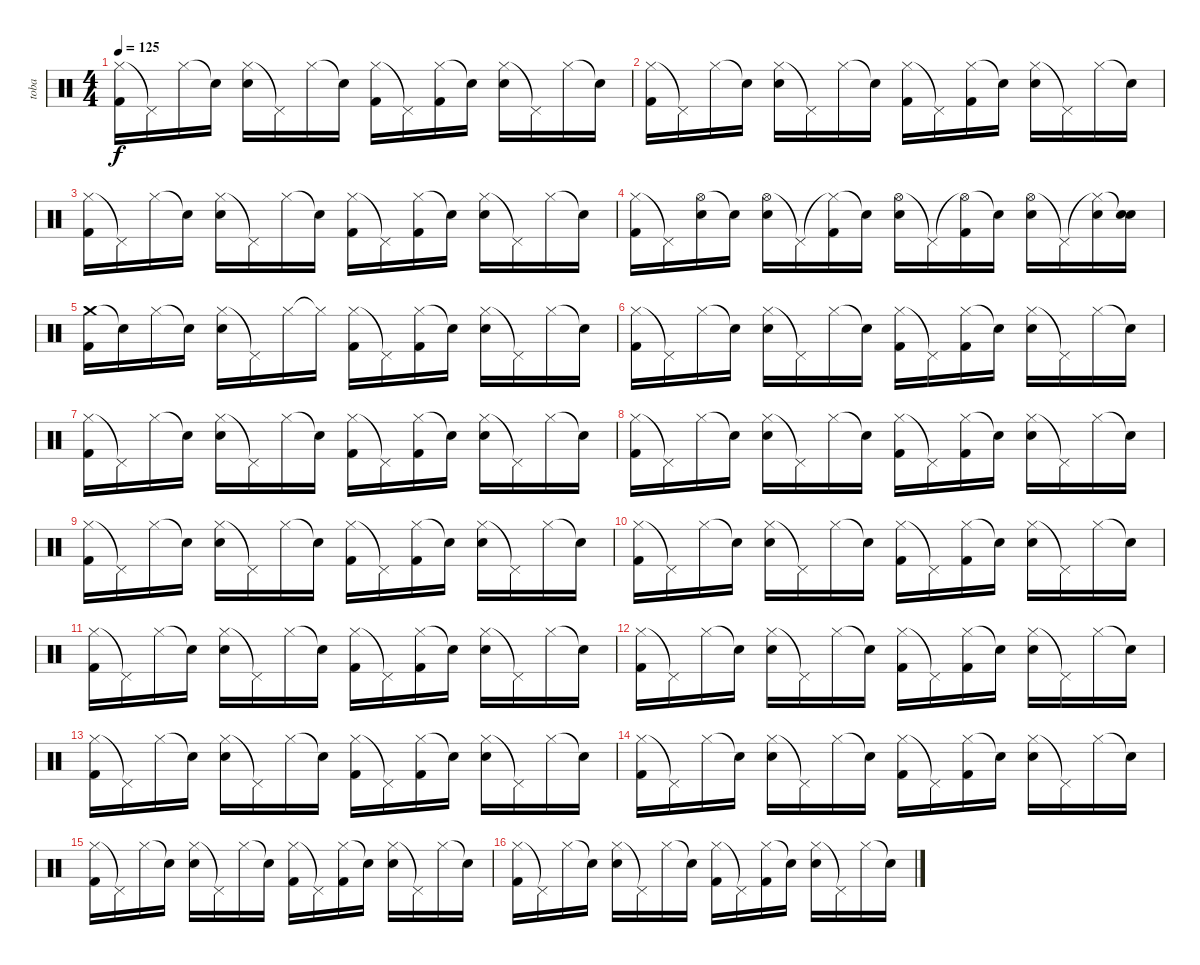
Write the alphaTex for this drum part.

\track ("toba" "toba") {instrument percussion}
\staff {score}
\articulation defaults
\ts (4 4)
\tempo 125
\clef neutral
\ks c
("Hi-Hat (closed)" "Kick (hit) 2").16{dy f} "Pedal Hi-Hat (hit)"{t}.16 "Hi-Hat (closed)".16 "Snare (hit)"{t}.16 ("Hi-Hat (closed)" "Electric Snare (hit)").16 "Pedal Hi-Hat (hit)"{t}.16 "Hi-Hat (closed)".16 "Snare (hit)"{t}.16 ("Hi-Hat (closed)" "Kick (hit) 2").16 "Pedal Hi-Hat (hit)"{t}.16 ("Hi-Hat (closed)" "Kick (hit) 2").16 "Snare (hit)"{t}.16 ("Hi-Hat (closed)" "Electric Snare (hit)").16 "Pedal Hi-Hat (hit)"{t}.16 "Hi-Hat (closed)".16 "Snare (hit)"{t}.16 |
("Hi-Hat (closed)" "Kick (hit) 2").16 "Pedal Hi-Hat (hit)"{t}.16 "Hi-Hat (closed)".16 "Snare (hit)"{t}.16 ("Hi-Hat (closed)" "Electric Snare (hit)").16 "Pedal Hi-Hat (hit)"{t}.16 "Hi-Hat (closed)".16 "Snare (hit)"{t}.16 ("Hi-Hat (closed)" "Kick (hit) 2").16 "Pedal Hi-Hat (hit)"{t}.16 ("Hi-Hat (closed)" "Kick (hit) 2").16 "Snare (hit)"{t}.16 ("Hi-Hat (closed)" "Electric Snare (hit)").16 "Pedal Hi-Hat (hit)"{t}.16 "Hi-Hat (closed)".16 "Snare (hit)"{t}.16 |
("Hi-Hat (closed)" "Kick (hit) 2").16 "Pedal Hi-Hat (hit)"{t}.16 "Hi-Hat (closed)".16 "Snare (hit)"{t}.16 ("Hi-Hat (closed)" "Electric Snare (hit)").16 "Pedal Hi-Hat (hit)"{t}.16 "Hi-Hat (closed)".16 "Snare (hit)"{t}.16 ("Hi-Hat (closed)" "Kick (hit) 2").16 "Pedal Hi-Hat (hit)"{t}.16 ("Hi-Hat (closed)" "Kick (hit) 2").16 "Snare (hit)"{t}.16 ("Hi-Hat (closed)" "Electric Snare (hit)").16 "Pedal Hi-Hat (hit)"{t}.16 "Hi-Hat (closed)".16 "Snare (hit)"{t}.16 |
("Hi-Hat (closed)" "Kick (hit) 2").16 "Pedal Hi-Hat (hit)"{t}.16 ("Hi-Hat (open)" "Electric Snare (hit)").16 "Snare (hit)"{t}.16 ("Hi-Hat (open)" "Electric Snare (hit)").16 "Pedal Hi-Hat (hit)"{t}.16 ("Hi-Hat (closed)"{t} "Kick (hit) 2").16 "Snare (hit)"{t}.16 ("Hi-Hat (open)" "Electric Snare (hit)").16 "Pedal Hi-Hat (hit)"{t}.16 ("Hi-Hat (open)"{t} "Kick (hit) 2").16 "Snare (hit)"{t}.16 ("Hi-Hat (open)" "Electric Snare (hit)").16 "Pedal Hi-Hat (hit)"{t}.16 ("Hi-Hat (closed)"{t} "Electric Snare (hit)").16 ("Snare (hit)"{t} "Electric Snare (hit)").16 |
("Crash medium (hit)" "Kick (hit) 2").16 "Snare (hit)"{t}.16 "Hi-Hat (closed)".16 "Snare (hit)"{t}.16 ("Hi-Hat (closed)" "Electric Snare (hit)").16 "Pedal Hi-Hat (hit)"{t}.16 "Hi-Hat (closed)".16 "Hi-Hat (closed)"{t}.16 ("Hi-Hat (closed)" "Kick (hit) 2").16 "Pedal Hi-Hat (hit)"{t}.16 ("Hi-Hat (closed)" "Kick (hit) 2").16 "Snare (hit)"{t}.16 ("Hi-Hat (closed)" "Electric Snare (hit)").16 "Pedal Hi-Hat (hit)"{t}.16 "Hi-Hat (closed)".16 "Snare (hit)"{t}.16 |
("Hi-Hat (closed)" "Kick (hit) 2").16 "Pedal Hi-Hat (hit)"{t}.16 "Hi-Hat (closed)".16 "Snare (hit)"{t}.16 ("Hi-Hat (closed)" "Electric Snare (hit)").16 "Pedal Hi-Hat (hit)"{t}.16 "Hi-Hat (closed)".16 "Snare (hit)"{t}.16 ("Hi-Hat (closed)" "Kick (hit) 2").16 "Pedal Hi-Hat (hit)"{t}.16 ("Hi-Hat (closed)" "Kick (hit) 2").16 "Snare (hit)"{t}.16 ("Hi-Hat (closed)" "Electric Snare (hit)").16 "Pedal Hi-Hat (hit)"{t}.16 "Hi-Hat (closed)".16 "Snare (hit)"{t}.16 |
("Hi-Hat (closed)" "Kick (hit) 2").16 "Pedal Hi-Hat (hit)"{t}.16 "Hi-Hat (closed)".16 "Snare (hit)"{t}.16 ("Hi-Hat (closed)" "Electric Snare (hit)").16 "Pedal Hi-Hat (hit)"{t}.16 "Hi-Hat (closed)".16 "Snare (hit)"{t}.16 ("Hi-Hat (closed)" "Kick (hit) 2").16 "Pedal Hi-Hat (hit)"{t}.16 ("Hi-Hat (closed)" "Kick (hit) 2").16 "Snare (hit)"{t}.16 ("Hi-Hat (closed)" "Electric Snare (hit)").16 "Pedal Hi-Hat (hit)"{t}.16 "Hi-Hat (closed)".16 "Snare (hit)"{t}.16 |
("Hi-Hat (closed)" "Kick (hit) 2").16 "Pedal Hi-Hat (hit)"{t}.16 "Hi-Hat (closed)".16 "Snare (hit)"{t}.16 ("Hi-Hat (closed)" "Electric Snare (hit)").16 "Pedal Hi-Hat (hit)"{t}.16 "Hi-Hat (closed)".16 "Snare (hit)"{t}.16 ("Hi-Hat (closed)" "Kick (hit) 2").16 "Pedal Hi-Hat (hit)"{t}.16 ("Hi-Hat (closed)" "Kick (hit) 2").16 "Snare (hit)"{t}.16 ("Hi-Hat (closed)" "Electric Snare (hit)").16 "Pedal Hi-Hat (hit)"{t}.16 "Hi-Hat (closed)".16 "Snare (hit)"{t}.16 |
("Hi-Hat (closed)" "Kick (hit) 2").16 "Pedal Hi-Hat (hit)"{t}.16 "Hi-Hat (closed)".16 "Snare (hit)"{t}.16 ("Hi-Hat (closed)" "Electric Snare (hit)").16 "Pedal Hi-Hat (hit)"{t}.16 "Hi-Hat (closed)".16 "Snare (hit)"{t}.16 ("Hi-Hat (closed)" "Kick (hit) 2").16 "Pedal Hi-Hat (hit)"{t}.16 ("Hi-Hat (closed)" "Kick (hit) 2").16 "Snare (hit)"{t}.16 ("Hi-Hat (closed)" "Electric Snare (hit)").16 "Pedal Hi-Hat (hit)"{t}.16 "Hi-Hat (closed)".16 "Snare (hit)"{t}.16 |
("Hi-Hat (closed)" "Kick (hit) 2").16 "Pedal Hi-Hat (hit)"{t}.16 "Hi-Hat (closed)".16 "Snare (hit)"{t}.16 ("Hi-Hat (closed)" "Electric Snare (hit)").16 "Pedal Hi-Hat (hit)"{t}.16 "Hi-Hat (closed)".16 "Snare (hit)"{t}.16 ("Hi-Hat (closed)" "Kick (hit) 2").16 "Pedal Hi-Hat (hit)"{t}.16 ("Hi-Hat (closed)" "Kick (hit) 2").16 "Snare (hit)"{t}.16 ("Hi-Hat (closed)" "Electric Snare (hit)").16 "Pedal Hi-Hat (hit)"{t}.16 "Hi-Hat (closed)".16 "Snare (hit)"{t}.16 |
("Hi-Hat (closed)" "Kick (hit) 2").16 "Pedal Hi-Hat (hit)"{t}.16 "Hi-Hat (closed)".16 "Snare (hit)"{t}.16 ("Hi-Hat (closed)" "Electric Snare (hit)").16 "Pedal Hi-Hat (hit)"{t}.16 "Hi-Hat (closed)".16 "Snare (hit)"{t}.16 ("Hi-Hat (closed)" "Kick (hit) 2").16 "Pedal Hi-Hat (hit)"{t}.16 ("Hi-Hat (closed)" "Kick (hit) 2").16 "Snare (hit)"{t}.16 ("Hi-Hat (closed)" "Electric Snare (hit)").16 "Pedal Hi-Hat (hit)"{t}.16 "Hi-Hat (closed)".16 "Snare (hit)"{t}.16 |
("Hi-Hat (closed)" "Kick (hit) 2").16 "Pedal Hi-Hat (hit)"{t}.16 "Hi-Hat (closed)".16 "Snare (hit)"{t}.16 ("Hi-Hat (closed)" "Electric Snare (hit)").16 "Pedal Hi-Hat (hit)"{t}.16 "Hi-Hat (closed)".16 "Snare (hit)"{t}.16 ("Hi-Hat (closed)" "Kick (hit) 2").16 "Pedal Hi-Hat (hit)"{t}.16 ("Hi-Hat (closed)" "Kick (hit) 2").16 "Snare (hit)"{t}.16 ("Hi-Hat (closed)" "Electric Snare (hit)").16 "Pedal Hi-Hat (hit)"{t}.16 "Hi-Hat (closed)".16 "Snare (hit)"{t}.16 |
("Hi-Hat (closed)" "Kick (hit) 2").16 "Pedal Hi-Hat (hit)"{t}.16 "Hi-Hat (closed)".16 "Snare (hit)"{t}.16 ("Hi-Hat (closed)" "Electric Snare (hit)").16 "Pedal Hi-Hat (hit)"{t}.16 "Hi-Hat (closed)".16 "Snare (hit)"{t}.16 ("Hi-Hat (closed)" "Kick (hit) 2").16 "Pedal Hi-Hat (hit)"{t}.16 ("Hi-Hat (closed)" "Kick (hit) 2").16 "Snare (hit)"{t}.16 ("Hi-Hat (closed)" "Electric Snare (hit)").16 "Pedal Hi-Hat (hit)"{t}.16 "Hi-Hat (closed)".16 "Snare (hit)"{t}.16 |
("Hi-Hat (closed)" "Kick (hit) 2").16 "Pedal Hi-Hat (hit)"{t}.16 "Hi-Hat (closed)".16 "Snare (hit)"{t}.16 ("Hi-Hat (closed)" "Electric Snare (hit)").16 "Pedal Hi-Hat (hit)"{t}.16 "Hi-Hat (closed)".16 "Snare (hit)"{t}.16 ("Hi-Hat (closed)" "Kick (hit) 2").16 "Pedal Hi-Hat (hit)"{t}.16 ("Hi-Hat (closed)" "Kick (hit) 2").16 "Snare (hit)"{t}.16 ("Hi-Hat (closed)" "Electric Snare (hit)").16 "Pedal Hi-Hat (hit)"{t}.16 "Hi-Hat (closed)".16 "Snare (hit)"{t}.16 |
("Hi-Hat (closed)" "Kick (hit) 2").16 "Pedal Hi-Hat (hit)"{t}.16 "Hi-Hat (closed)".16 "Snare (hit)"{t}.16 ("Hi-Hat (closed)" "Electric Snare (hit)").16 "Pedal Hi-Hat (hit)"{t}.16 "Hi-Hat (closed)".16 "Snare (hit)"{t}.16 ("Hi-Hat (closed)" "Kick (hit) 2").16 "Pedal Hi-Hat (hit)"{t}.16 ("Hi-Hat (closed)" "Kick (hit) 2").16 "Snare (hit)"{t}.16 ("Hi-Hat (closed)" "Electric Snare (hit)").16 "Pedal Hi-Hat (hit)"{t}.16 "Hi-Hat (closed)".16 "Snare (hit)"{t}.16 |
("Hi-Hat (closed)" "Kick (hit) 2").16 "Pedal Hi-Hat (hit)"{t}.16 "Hi-Hat (closed)".16 "Snare (hit)"{t}.16 ("Hi-Hat (closed)" "Electric Snare (hit)").16 "Pedal Hi-Hat (hit)"{t}.16 "Hi-Hat (closed)".16 "Snare (hit)"{t}.16 ("Hi-Hat (closed)" "Kick (hit) 2").16 "Pedal Hi-Hat (hit)"{t}.16 ("Hi-Hat (closed)" "Kick (hit) 2").16 "Snare (hit)"{t}.16 ("Hi-Hat (closed)" "Electric Snare (hit)").16 "Pedal Hi-Hat (hit)"{t}.16 "Hi-Hat (closed)".16 "Snare (hit)"{t}.16
